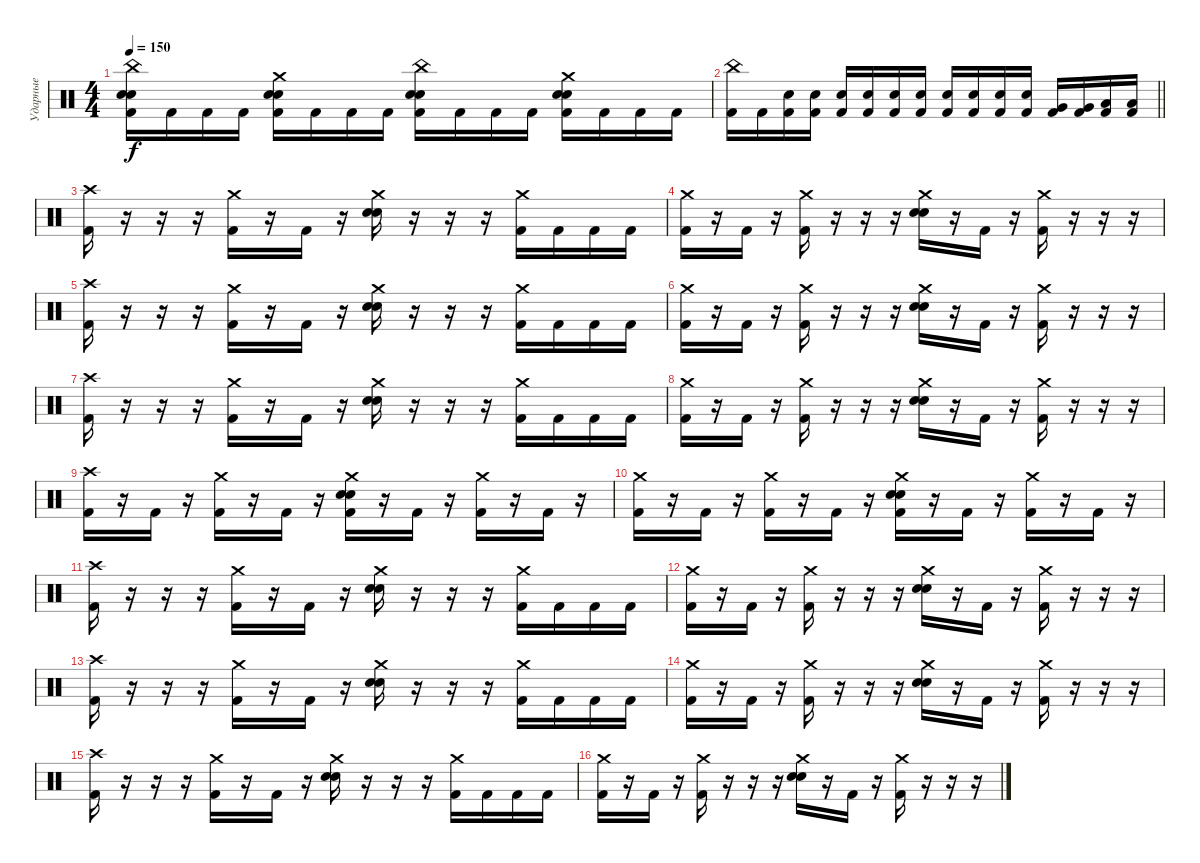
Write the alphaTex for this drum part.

\track ("Ударные" "Ударные") {solo instrument percussion}
\staff {score}
\articulation defaults
\ts (4 4)
\tempo 150
\clef neutral
\ks c
("China (hit)" "Electric Snare (hit)" "Snare (hit) 2" "Kick (hit) 2").16{dy f} "Kick (hit) 2".16 "Kick (hit) 2".16 "Kick (hit) 2".16 ("Crash medium (hit)" "Electric Snare (hit)" "Snare (hit) 2" "Kick (hit) 2").16 "Kick (hit) 2".16 "Kick (hit) 2".16 "Kick (hit) 2".16 ("China (hit)" "Electric Snare (hit)" "Snare (hit) 2" "Kick (hit) 2").16 "Kick (hit) 2".16 "Kick (hit) 2".16 "Kick (hit) 2".16 ("Crash medium (hit)" "Electric Snare (hit)" "Snare (hit) 2" "Kick (hit) 2").16 "Kick (hit) 2".16 "Kick (hit) 2".16 "Kick (hit) 2".16 |
\barLineRight lightlight
("China (hit)" "Kick (hit) 2").16 "Kick (hit) 2".16 ("Snare (hit) 2" "Kick (hit) 2").16 ("Snare (hit) 2" "Kick (hit) 2").16 ("Snare (hit) 2" "Kick (hit) 2").16 ("Snare (hit) 2" "Kick (hit) 2").16 ("Snare (hit) 2" "Kick (hit) 2").16 ("Snare (hit) 2" "Kick (hit) 2").16 ("Snare (hit) 2" "Kick (hit) 2").16 ("Snare (hit) 2" "Kick (hit) 2").16 ("Snare (hit) 2" "Kick (hit) 2").16 ("Snare (hit) 2" "Kick (hit) 2").16 ("Very Low Tom (hit)" "Kick (hit) 2").16 ("Very Low Tom (hit)" "Kick (hit) 2").16 ("Low Floor Tom (hit)" "Kick (hit) 2").16 ("Low Floor Tom (hit)" "Kick (hit) 2").16 |
("Crash high (hit)" "Kick (hit) 2").16 r.16 r.16 r.16 ("Crash medium (hit)" "Kick (hit) 2").16 r.16 "Kick (hit) 2".16 r.16 ("Crash medium (hit)" "Electric Snare (hit)" "Snare (hit) 2").16 r.16 r.16 r.16 ("Crash medium (hit)" "Kick (hit) 2").16 "Kick (hit) 2".16 "Kick (hit) 2".16 "Kick (hit) 2".16 |
("Crash medium (hit)" "Kick (hit) 2").16 r.16 "Kick (hit) 2".16 r.16 ("Crash medium (hit)" "Kick (hit) 2").16 r.16 r.16 r.16 ("Crash medium (hit)" "Electric Snare (hit)" "Snare (hit) 2").16 r.16 "Kick (hit) 2".16 r.16 ("Crash medium (hit)" "Kick (hit) 2").16 r.16 r.16 r.16 |
("Crash high (hit)" "Kick (hit) 2").16 r.16 r.16 r.16 ("Crash medium (hit)" "Kick (hit) 2").16 r.16 "Kick (hit) 2".16 r.16 ("Crash medium (hit)" "Electric Snare (hit)" "Snare (hit) 2").16 r.16 r.16 r.16 ("Crash medium (hit)" "Kick (hit) 2").16 "Kick (hit) 2".16 "Kick (hit) 2".16 "Kick (hit) 2".16 |
("Crash medium (hit)" "Kick (hit) 2").16 r.16 "Kick (hit) 2".16 r.16 ("Crash medium (hit)" "Kick (hit) 2").16 r.16 r.16 r.16 ("Crash medium (hit)" "Electric Snare (hit)" "Snare (hit) 2").16 r.16 "Kick (hit) 2".16 r.16 ("Crash medium (hit)" "Kick (hit) 2").16 r.16 r.16 r.16 |
("Crash high (hit)" "Kick (hit) 2").16 r.16 r.16 r.16 ("Crash medium (hit)" "Kick (hit) 2").16 r.16 "Kick (hit) 2".16 r.16 ("Crash medium (hit)" "Electric Snare (hit)" "Snare (hit) 2").16 r.16 r.16 r.16 ("Crash medium (hit)" "Kick (hit) 2").16 "Kick (hit) 2".16 "Kick (hit) 2".16 "Kick (hit) 2".16 |
("Crash medium (hit)" "Kick (hit) 2").16 r.16 "Kick (hit) 2".16 r.16 ("Crash medium (hit)" "Kick (hit) 2").16 r.16 r.16 r.16 ("Crash medium (hit)" "Electric Snare (hit)" "Snare (hit) 2").16 r.16 "Kick (hit) 2".16 r.16 ("Crash medium (hit)" "Kick (hit) 2").16 r.16 r.16 r.16 |
("Crash high (hit)" "Kick (hit) 2").16 r.16 "Kick (hit) 2".16 r.16 ("Crash medium (hit)" "Kick (hit) 2").16 r.16 "Kick (hit) 2".16 r.16 ("Crash medium (hit)" "Electric Snare (hit)" "Snare (hit) 2" "Kick (hit) 2").16 r.16 "Kick (hit) 2".16 r.16 ("Crash medium (hit)" "Kick (hit) 2").16 r.16 "Kick (hit) 2".16 r.16 |
("Crash medium (hit)" "Kick (hit) 2").16 r.16 "Kick (hit) 2".16 r.16 ("Crash medium (hit)" "Kick (hit) 2").16 r.16 "Kick (hit) 2".16 r.16 ("Crash medium (hit)" "Electric Snare (hit)" "Snare (hit) 2" "Kick (hit) 2").16 r.16 "Kick (hit) 2".16 r.16 ("Crash medium (hit)" "Kick (hit) 2").16 r.16 "Kick (hit) 2".16 r.16 |
("Crash high (hit)" "Kick (hit) 2").16 r.16 r.16 r.16 ("Crash medium (hit)" "Kick (hit) 2").16 r.16 "Kick (hit) 2".16 r.16 ("Crash medium (hit)" "Electric Snare (hit)" "Snare (hit) 2").16 r.16 r.16 r.16 ("Crash medium (hit)" "Kick (hit) 2").16 "Kick (hit) 2".16 "Kick (hit) 2".16 "Kick (hit) 2".16 |
("Crash medium (hit)" "Kick (hit) 2").16 r.16 "Kick (hit) 2".16 r.16 ("Crash medium (hit)" "Kick (hit) 2").16 r.16 r.16 r.16 ("Crash medium (hit)" "Electric Snare (hit)" "Snare (hit) 2").16 r.16 "Kick (hit) 2".16 r.16 ("Crash medium (hit)" "Kick (hit) 2").16 r.16 r.16 r.16 |
("Crash high (hit)" "Kick (hit) 2").16 r.16 r.16 r.16 ("Crash medium (hit)" "Kick (hit) 2").16 r.16 "Kick (hit) 2".16 r.16 ("Crash medium (hit)" "Electric Snare (hit)" "Snare (hit) 2").16 r.16 r.16 r.16 ("Crash medium (hit)" "Kick (hit) 2").16 "Kick (hit) 2".16 "Kick (hit) 2".16 "Kick (hit) 2".16 |
("Crash medium (hit)" "Kick (hit) 2").16 r.16 "Kick (hit) 2".16 r.16 ("Crash medium (hit)" "Kick (hit) 2").16 r.16 r.16 r.16 ("Crash medium (hit)" "Electric Snare (hit)" "Snare (hit) 2").16 r.16 "Kick (hit) 2".16 r.16 ("Crash medium (hit)" "Kick (hit) 2").16 r.16 r.16 r.16 |
("Crash high (hit)" "Kick (hit) 2").16 r.16 r.16 r.16 ("Crash medium (hit)" "Kick (hit) 2").16 r.16 "Kick (hit) 2".16 r.16 ("Crash medium (hit)" "Electric Snare (hit)" "Snare (hit) 2").16 r.16 r.16 r.16 ("Crash medium (hit)" "Kick (hit) 2").16 "Kick (hit) 2".16 "Kick (hit) 2".16 "Kick (hit) 2".16 |
("Crash medium (hit)" "Kick (hit) 2").16 r.16 "Kick (hit) 2".16 r.16 ("Crash medium (hit)" "Kick (hit) 2").16 r.16 r.16 r.16 ("Crash medium (hit)" "Electric Snare (hit)" "Snare (hit) 2").16 r.16 "Kick (hit) 2".16 r.16 ("Crash medium (hit)" "Kick (hit) 2").16 r.16 r.16 r.16
